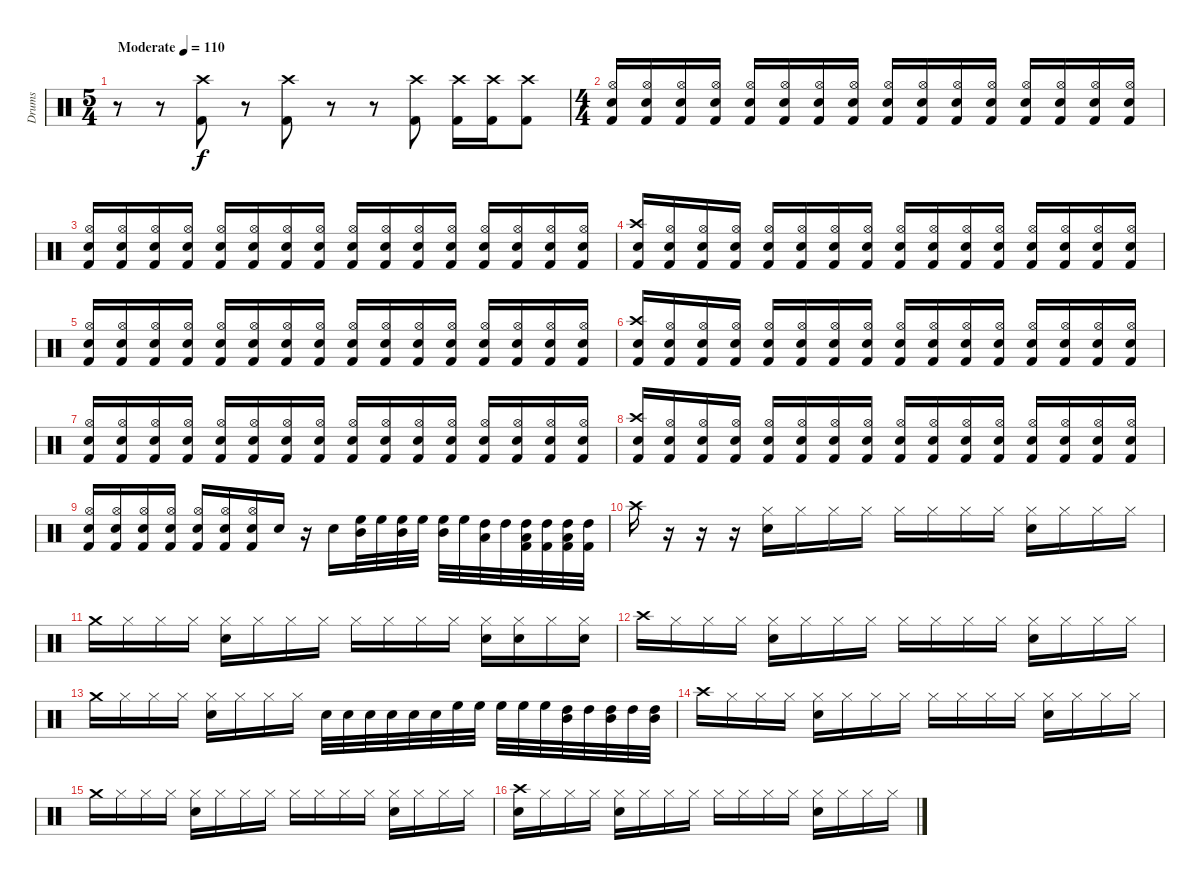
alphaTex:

\track ("Drums" "Drums") {instrument percussion}
\staff {score}
\articulation defaults
\ts (5 4)
\tempo (110 "Moderate")
\clef neutral
\ks c
r.8{dy f} r.8 ("Kick (hit) 2" "Crash high (hit)").8 r.8 ("Kick (hit) 2" "Crash high (hit)").8 r.8 r.8 ("Kick (hit) 2" "Crash high (hit)").8 ("Kick (hit) 2" "Crash high (hit)").16 ("Kick (hit) 2" "Crash high (hit)").16 ("Kick (hit) 2" "Crash high (hit)").8 |
\ts (4 4)
("Kick (hit) 2" "Hi-Hat (open)" "Snare (hit) 2").16 ("Kick (hit) 2" "Hi-Hat (open)" "Snare (hit) 2").16 ("Kick (hit) 2" "Hi-Hat (open)" "Snare (hit) 2").16 ("Kick (hit) 2" "Hi-Hat (open)" "Snare (hit) 2").16 ("Kick (hit) 2" "Hi-Hat (open)" "Snare (hit) 2").16 ("Kick (hit) 2" "Hi-Hat (open)" "Snare (hit) 2").16 ("Kick (hit) 2" "Hi-Hat (open)" "Snare (hit) 2").16 ("Kick (hit) 2" "Hi-Hat (open)" "Snare (hit) 2").16 ("Kick (hit) 2" "Hi-Hat (open)" "Snare (hit) 2").16 ("Kick (hit) 2" "Hi-Hat (open)" "Snare (hit) 2").16 ("Kick (hit) 2" "Hi-Hat (open)" "Snare (hit) 2").16 ("Kick (hit) 2" "Hi-Hat (open)" "Snare (hit) 2").16 ("Kick (hit) 2" "Hi-Hat (open)" "Snare (hit) 2").16 ("Kick (hit) 2" "Hi-Hat (open)" "Snare (hit) 2").16 ("Kick (hit) 2" "Hi-Hat (open)" "Snare (hit) 2").16 ("Kick (hit) 2" "Hi-Hat (open)" "Snare (hit) 2").16 |
("Kick (hit) 2" "Hi-Hat (open)" "Snare (hit) 2").16 ("Kick (hit) 2" "Hi-Hat (open)" "Snare (hit) 2").16 ("Kick (hit) 2" "Hi-Hat (open)" "Snare (hit) 2").16 ("Kick (hit) 2" "Hi-Hat (open)" "Snare (hit) 2").16 ("Kick (hit) 2" "Hi-Hat (open)" "Snare (hit) 2").16 ("Kick (hit) 2" "Hi-Hat (open)" "Snare (hit) 2").16 ("Kick (hit) 2" "Hi-Hat (open)" "Snare (hit) 2").16 ("Kick (hit) 2" "Hi-Hat (open)" "Snare (hit) 2").16 ("Kick (hit) 2" "Hi-Hat (open)" "Snare (hit) 2").16 ("Kick (hit) 2" "Hi-Hat (open)" "Snare (hit) 2").16 ("Kick (hit) 2" "Hi-Hat (open)" "Snare (hit) 2").16 ("Kick (hit) 2" "Hi-Hat (open)" "Snare (hit) 2").16 ("Kick (hit) 2" "Hi-Hat (open)" "Snare (hit) 2").16 ("Kick (hit) 2" "Hi-Hat (open)" "Snare (hit) 2").16 ("Kick (hit) 2" "Hi-Hat (open)" "Snare (hit) 2").16 ("Kick (hit) 2" "Hi-Hat (open)" "Snare (hit) 2").16 |
("Kick (hit) 2" "Crash high (hit)" "Snare (hit) 2").16 ("Kick (hit) 2" "Hi-Hat (open)" "Snare (hit) 2").16 ("Kick (hit) 2" "Hi-Hat (open)" "Snare (hit) 2").16 ("Kick (hit) 2" "Hi-Hat (open)" "Snare (hit) 2").16 ("Kick (hit) 2" "Hi-Hat (open)" "Snare (hit) 2").16 ("Kick (hit) 2" "Hi-Hat (open)" "Snare (hit) 2").16 ("Kick (hit) 2" "Hi-Hat (open)" "Snare (hit) 2").16 ("Kick (hit) 2" "Hi-Hat (open)" "Snare (hit) 2").16 ("Kick (hit) 2" "Hi-Hat (open)" "Snare (hit) 2").16 ("Kick (hit) 2" "Hi-Hat (open)" "Snare (hit) 2").16 ("Kick (hit) 2" "Hi-Hat (open)" "Snare (hit) 2").16 ("Kick (hit) 2" "Hi-Hat (open)" "Snare (hit) 2").16 ("Kick (hit) 2" "Hi-Hat (open)" "Snare (hit) 2").16 ("Kick (hit) 2" "Hi-Hat (open)" "Snare (hit) 2").16 ("Kick (hit) 2" "Hi-Hat (open)" "Snare (hit) 2").16 ("Kick (hit) 2" "Hi-Hat (open)" "Snare (hit) 2").16 |
("Kick (hit) 2" "Hi-Hat (open)" "Snare (hit) 2").16 ("Kick (hit) 2" "Hi-Hat (open)" "Snare (hit) 2").16 ("Kick (hit) 2" "Hi-Hat (open)" "Snare (hit) 2").16 ("Kick (hit) 2" "Hi-Hat (open)" "Snare (hit) 2").16 ("Kick (hit) 2" "Hi-Hat (open)" "Snare (hit) 2").16 ("Kick (hit) 2" "Hi-Hat (open)" "Snare (hit) 2").16 ("Kick (hit) 2" "Hi-Hat (open)" "Snare (hit) 2").16 ("Kick (hit) 2" "Hi-Hat (open)" "Snare (hit) 2").16 ("Kick (hit) 2" "Hi-Hat (open)" "Snare (hit) 2").16 ("Kick (hit) 2" "Hi-Hat (open)" "Snare (hit) 2").16 ("Kick (hit) 2" "Hi-Hat (open)" "Snare (hit) 2").16 ("Kick (hit) 2" "Hi-Hat (open)" "Snare (hit) 2").16 ("Kick (hit) 2" "Hi-Hat (open)" "Snare (hit) 2").16 ("Kick (hit) 2" "Hi-Hat (open)" "Snare (hit) 2").16 ("Kick (hit) 2" "Hi-Hat (open)" "Snare (hit) 2").16 ("Kick (hit) 2" "Hi-Hat (open)" "Snare (hit) 2").16 |
("Kick (hit) 2" "Crash high (hit)" "Snare (hit) 2").16 ("Kick (hit) 2" "Hi-Hat (open)" "Snare (hit) 2").16 ("Kick (hit) 2" "Hi-Hat (open)" "Snare (hit) 2").16 ("Kick (hit) 2" "Hi-Hat (open)" "Snare (hit) 2").16 ("Kick (hit) 2" "Hi-Hat (open)" "Snare (hit) 2").16 ("Kick (hit) 2" "Hi-Hat (open)" "Snare (hit) 2").16 ("Kick (hit) 2" "Hi-Hat (open)" "Snare (hit) 2").16 ("Kick (hit) 2" "Hi-Hat (open)" "Snare (hit) 2").16 ("Kick (hit) 2" "Hi-Hat (open)" "Snare (hit) 2").16 ("Kick (hit) 2" "Hi-Hat (open)" "Snare (hit) 2").16 ("Kick (hit) 2" "Hi-Hat (open)" "Snare (hit) 2").16 ("Kick (hit) 2" "Hi-Hat (open)" "Snare (hit) 2").16 ("Kick (hit) 2" "Hi-Hat (open)" "Snare (hit) 2").16 ("Kick (hit) 2" "Hi-Hat (open)" "Snare (hit) 2").16 ("Kick (hit) 2" "Hi-Hat (open)" "Snare (hit) 2").16 ("Kick (hit) 2" "Hi-Hat (open)" "Snare (hit) 2").16 |
("Kick (hit) 2" "Hi-Hat (open)" "Snare (hit) 2").16 ("Kick (hit) 2" "Hi-Hat (open)" "Snare (hit) 2").16 ("Kick (hit) 2" "Hi-Hat (open)" "Snare (hit) 2").16 ("Kick (hit) 2" "Hi-Hat (open)" "Snare (hit) 2").16 ("Kick (hit) 2" "Hi-Hat (open)" "Snare (hit) 2").16 ("Kick (hit) 2" "Hi-Hat (open)" "Snare (hit) 2").16 ("Kick (hit) 2" "Hi-Hat (open)" "Snare (hit) 2").16 ("Kick (hit) 2" "Hi-Hat (open)" "Snare (hit) 2").16 ("Kick (hit) 2" "Hi-Hat (open)" "Snare (hit) 2").16 ("Kick (hit) 2" "Hi-Hat (open)" "Snare (hit) 2").16 ("Kick (hit) 2" "Hi-Hat (open)" "Snare (hit) 2").16 ("Kick (hit) 2" "Hi-Hat (open)" "Snare (hit) 2").16 ("Kick (hit) 2" "Hi-Hat (open)" "Snare (hit) 2").16 ("Kick (hit) 2" "Hi-Hat (open)" "Snare (hit) 2").16 ("Kick (hit) 2" "Hi-Hat (open)" "Snare (hit) 2").16 ("Kick (hit) 2" "Hi-Hat (open)" "Snare (hit) 2").16 |
("Kick (hit) 2" "Crash high (hit)" "Snare (hit) 2").16 ("Kick (hit) 2" "Hi-Hat (open)" "Snare (hit) 2").16 ("Kick (hit) 2" "Hi-Hat (open)" "Snare (hit) 2").16 ("Kick (hit) 2" "Hi-Hat (open)" "Snare (hit) 2").16 ("Kick (hit) 2" "Hi-Hat (open)" "Snare (hit) 2").16 ("Kick (hit) 2" "Hi-Hat (open)" "Snare (hit) 2").16 ("Kick (hit) 2" "Hi-Hat (open)" "Snare (hit) 2").16 ("Kick (hit) 2" "Hi-Hat (open)" "Snare (hit) 2").16 ("Kick (hit) 2" "Hi-Hat (open)" "Snare (hit) 2").16 ("Kick (hit) 2" "Hi-Hat (open)" "Snare (hit) 2").16 ("Kick (hit) 2" "Hi-Hat (open)" "Snare (hit) 2").16 ("Kick (hit) 2" "Hi-Hat (open)" "Snare (hit) 2").16 ("Kick (hit) 2" "Hi-Hat (open)" "Snare (hit) 2").16 ("Kick (hit) 2" "Hi-Hat (open)" "Snare (hit) 2").16 ("Kick (hit) 2" "Hi-Hat (open)" "Snare (hit) 2").16 ("Kick (hit) 2" "Hi-Hat (open)" "Snare (hit) 2").16 |
("Kick (hit) 2" "Hi-Hat (open)" "Snare (hit) 2").16 ("Kick (hit) 2" "Hi-Hat (open)" "Snare (hit) 2").16 ("Kick (hit) 2" "Hi-Hat (open)" "Snare (hit) 2").16 ("Kick (hit) 2" "Hi-Hat (open)" "Snare (hit) 2").16 ("Kick (hit) 2" "Hi-Hat (open)" "Snare (hit) 2").16 ("Kick (hit) 2" "Hi-Hat (open)" "Snare (hit) 2").16 ("Kick (hit) 2" "Hi-Hat (open)" "Snare (hit) 2").16 "Snare (hit) 2".16 r.16 "Snare (hit) 2".16 ("Mid Tom (hit)" "High Floor Tom (hit)").32 "High Floor Tom (hit)".32 ("Mid Tom (hit)" "High Floor Tom (hit)").32 "High Floor Tom (hit)".32 ("Mid Tom (hit)" "High Floor Tom (hit)").32 "High Floor Tom (hit)".32 ("Low Tom (hit)" "High Tom (hit)").32 "High Tom (hit)".32 ("Kick (hit) 2" "Low Tom (hit)" "High Tom (hit)").32 ("Kick (hit) 2" "High Tom (hit)").32 ("Kick (hit) 2" "Low Tom (hit)" "High Tom (hit)").32 ("Kick (hit) 2" "High Tom (hit)").32 |
"Crash high (hit)".16 r.16 r.16 r.16 ("Hi-Hat (closed)" "Snare (hit) 2").16 "Hi-Hat (closed)".16 "Hi-Hat (closed)".16 "Hi-Hat (closed)".16 "Hi-Hat (closed)".16 "Hi-Hat (closed)".16 "Hi-Hat (closed)".16 "Hi-Hat (closed)".16 ("Hi-Hat (closed)" "Snare (hit) 2").16 "Hi-Hat (closed)".16 "Hi-Hat (closed)".16 "Hi-Hat (closed)".16 |
"Crash medium (hit)".16 "Hi-Hat (closed)".16 "Hi-Hat (closed)".16 "Hi-Hat (closed)".16 ("Hi-Hat (closed)" "Snare (hit) 2").16 "Hi-Hat (closed)".16 "Hi-Hat (closed)".16 "Hi-Hat (closed)".16 "Hi-Hat (closed)".16 "Hi-Hat (closed)".16 "Hi-Hat (closed)".16 "Hi-Hat (closed)".16 ("Hi-Hat (closed)" "Snare (hit) 2").16 ("Hi-Hat (closed)" "Snare (hit) 2").16 "Hi-Hat (closed)".16 ("Hi-Hat (closed)" "Snare (hit) 2").16 |
"Crash high (hit)".16 "Hi-Hat (closed)".16 "Hi-Hat (closed)".16 "Hi-Hat (closed)".16 ("Hi-Hat (closed)" "Snare (hit) 2").16 "Hi-Hat (closed)".16 "Hi-Hat (closed)".16 "Hi-Hat (closed)".16 "Hi-Hat (closed)".16 "Hi-Hat (closed)".16 "Hi-Hat (closed)".16 "Hi-Hat (closed)".16 ("Hi-Hat (closed)" "Snare (hit) 2").16 "Hi-Hat (closed)".16 "Hi-Hat (closed)".16 "Hi-Hat (closed)".16 |
"Crash medium (hit)".16 "Hi-Hat (closed)".16 "Hi-Hat (closed)".16 "Hi-Hat (closed)".16 ("Hi-Hat (closed)" "Snare (hit) 2").16 "Hi-Hat (closed)".16 "Hi-Hat (closed)".16 "Hi-Hat (closed)".16 "Snare (hit) 2".32 "Snare (hit) 2".32 "Snare (hit) 2".32 "Snare (hit) 2".32 "Snare (hit) 2".32 "Snare (hit) 2".32 "High Floor Tom (hit)".32 "High Floor Tom (hit)".32 "High Floor Tom (hit)".32 "High Floor Tom (hit)".32 "High Floor Tom (hit)".32 ("Mid Tom (hit)" "High Tom (hit)").32 "High Tom (hit)".32 ("Mid Tom (hit)" "High Tom (hit)").32 "High Tom (hit)".32 ("Mid Tom (hit)" "High Tom (hit)").32 |
"Crash high (hit)".16 "Hi-Hat (closed)".16 "Hi-Hat (closed)".16 "Hi-Hat (closed)".16 ("Hi-Hat (closed)" "Snare (hit) 2").16 "Hi-Hat (closed)".16 "Hi-Hat (closed)".16 "Hi-Hat (closed)".16 "Hi-Hat (closed)".16 "Hi-Hat (closed)".16 "Hi-Hat (closed)".16 "Hi-Hat (closed)".16 ("Hi-Hat (closed)" "Snare (hit) 2").16 "Hi-Hat (closed)".16 "Hi-Hat (closed)".16 "Hi-Hat (closed)".16 |
"Crash medium (hit)".16 "Hi-Hat (closed)".16 "Hi-Hat (closed)".16 "Hi-Hat (closed)".16 ("Hi-Hat (closed)" "Snare (hit) 2").16 "Hi-Hat (closed)".16 "Hi-Hat (closed)".16 "Hi-Hat (closed)".16 "Hi-Hat (closed)".16 "Hi-Hat (closed)".16 "Hi-Hat (closed)".16 "Hi-Hat (closed)".16 ("Hi-Hat (closed)" "Snare (hit) 2").16 "Hi-Hat (closed)".16 "Hi-Hat (closed)".16 "Hi-Hat (closed)".16 |
("Crash high (hit)" "Snare (hit) 2").16 "Hi-Hat (closed)".16 "Hi-Hat (closed)".16 "Hi-Hat (closed)".16 ("Hi-Hat (closed)" "Snare (hit) 2").16 "Hi-Hat (closed)".16 "Hi-Hat (closed)".16 "Hi-Hat (closed)".16 "Hi-Hat (closed)".16 "Hi-Hat (closed)".16 "Hi-Hat (closed)".16 "Hi-Hat (closed)".16 ("Hi-Hat (closed)" "Snare (hit) 2").16 "Hi-Hat (closed)".16 "Hi-Hat (closed)".16 "Hi-Hat (closed)".16
